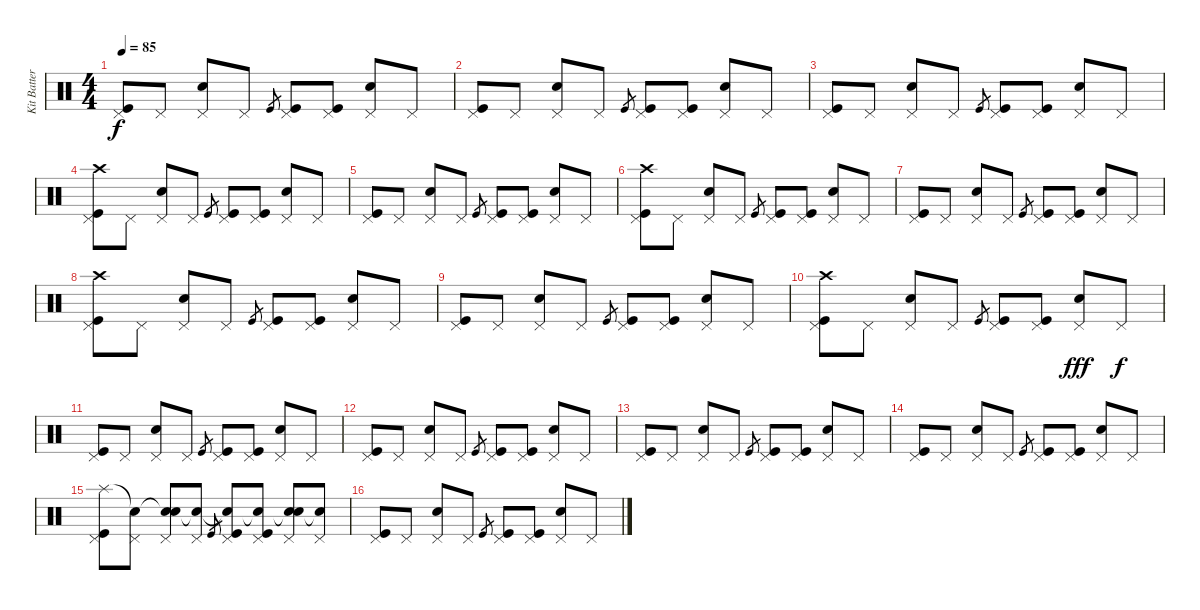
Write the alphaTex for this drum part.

\track ("Kit Batterie 1" "Kit Batter") {instrument percussion}
\staff {score}
\articulation defaults
\ts (4 4)
\tempo 85
\clef neutral
\ks c
("Pedal Hi-Hat (hit)" "Kick (hit)").8{dy f} "Pedal Hi-Hat (hit)".8 ("Pedal Hi-Hat (hit)" "Electric Snare (hit)").8 "Pedal Hi-Hat (hit)".8 "Kick (hit)".8{gr} ("Pedal Hi-Hat (hit)" "Kick (hit)").8 ("Pedal Hi-Hat (hit)" "Kick (hit)").8 ("Pedal Hi-Hat (hit)" "Electric Snare (hit)").8 "Pedal Hi-Hat (hit)".8 |
("Pedal Hi-Hat (hit)" "Kick (hit)").8 "Pedal Hi-Hat (hit)".8 ("Pedal Hi-Hat (hit)" "Electric Snare (hit)").8 "Pedal Hi-Hat (hit)".8 "Kick (hit)".8{gr} ("Pedal Hi-Hat (hit)" "Kick (hit)").8 ("Pedal Hi-Hat (hit)" "Kick (hit)").8 ("Pedal Hi-Hat (hit)" "Electric Snare (hit)").8 "Pedal Hi-Hat (hit)".8 |
("Pedal Hi-Hat (hit)" "Kick (hit)").8 "Pedal Hi-Hat (hit)".8 ("Pedal Hi-Hat (hit)" "Electric Snare (hit)").8 "Pedal Hi-Hat (hit)".8 "Kick (hit)".8{gr} ("Pedal Hi-Hat (hit)" "Kick (hit)").8 ("Pedal Hi-Hat (hit)" "Kick (hit)").8 ("Pedal Hi-Hat (hit)" "Electric Snare (hit)").8 "Pedal Hi-Hat (hit)".8 |
("Pedal Hi-Hat (hit)" "Crash high (hit)" "Kick (hit)").8 "Pedal Hi-Hat (hit)".8 ("Pedal Hi-Hat (hit)" "Electric Snare (hit)").8 "Pedal Hi-Hat (hit)".8 "Kick (hit)".8{gr} ("Pedal Hi-Hat (hit)" "Kick (hit)").8 ("Pedal Hi-Hat (hit)" "Kick (hit)").8 ("Pedal Hi-Hat (hit)" "Electric Snare (hit)").8 "Pedal Hi-Hat (hit)".8 |
("Pedal Hi-Hat (hit)" "Kick (hit)").8 "Pedal Hi-Hat (hit)".8 ("Pedal Hi-Hat (hit)" "Electric Snare (hit)").8 "Pedal Hi-Hat (hit)".8 "Kick (hit)".8{gr} ("Pedal Hi-Hat (hit)" "Kick (hit)").8 ("Pedal Hi-Hat (hit)" "Kick (hit)").8 ("Pedal Hi-Hat (hit)" "Electric Snare (hit)").8 "Pedal Hi-Hat (hit)".8 |
("Pedal Hi-Hat (hit)" "Crash high (hit)" "Kick (hit)").8 "Pedal Hi-Hat (hit)".8 ("Pedal Hi-Hat (hit)" "Electric Snare (hit)").8 "Pedal Hi-Hat (hit)".8 "Kick (hit)".8{gr} ("Pedal Hi-Hat (hit)" "Kick (hit)").8 ("Pedal Hi-Hat (hit)" "Kick (hit)").8 ("Pedal Hi-Hat (hit)" "Electric Snare (hit)").8 "Pedal Hi-Hat (hit)".8 |
("Pedal Hi-Hat (hit)" "Kick (hit)").8 "Pedal Hi-Hat (hit)".8 ("Pedal Hi-Hat (hit)" "Electric Snare (hit)").8 "Pedal Hi-Hat (hit)".8 "Kick (hit)".8{gr} ("Pedal Hi-Hat (hit)" "Kick (hit)").8 ("Pedal Hi-Hat (hit)" "Kick (hit)").8 ("Pedal Hi-Hat (hit)" "Electric Snare (hit)").8 "Pedal Hi-Hat (hit)".8 |
("Pedal Hi-Hat (hit)" "Crash high (hit)" "Kick (hit)").8 "Pedal Hi-Hat (hit)".8 ("Pedal Hi-Hat (hit)" "Electric Snare (hit)").8 "Pedal Hi-Hat (hit)".8 "Kick (hit)".8{gr} ("Pedal Hi-Hat (hit)" "Kick (hit)").8 ("Pedal Hi-Hat (hit)" "Kick (hit)").8 ("Pedal Hi-Hat (hit)" "Electric Snare (hit)").8 "Pedal Hi-Hat (hit)".8 |
("Pedal Hi-Hat (hit)" "Kick (hit)").8 "Pedal Hi-Hat (hit)".8 ("Pedal Hi-Hat (hit)" "Electric Snare (hit)").8 "Pedal Hi-Hat (hit)".8 "Kick (hit)".8{gr} ("Pedal Hi-Hat (hit)" "Kick (hit)").8 ("Pedal Hi-Hat (hit)" "Kick (hit)").8 ("Pedal Hi-Hat (hit)" "Electric Snare (hit)").8 "Pedal Hi-Hat (hit)".8 |
("Pedal Hi-Hat (hit)" "Crash high (hit)" "Kick (hit)").8 "Pedal Hi-Hat (hit)".8 ("Pedal Hi-Hat (hit)" "Electric Snare (hit)").8 "Pedal Hi-Hat (hit)".8 "Kick (hit)".8{gr} ("Pedal Hi-Hat (hit)" "Kick (hit)").8 ("Pedal Hi-Hat (hit)" "Kick (hit)").8 ("Pedal Hi-Hat (hit)" "Electric Snare (hit)").8{dy fff} "Pedal Hi-Hat (hit)".8{dy f} |
("Pedal Hi-Hat (hit)" "Kick (hit)").8 "Pedal Hi-Hat (hit)".8 ("Pedal Hi-Hat (hit)" "Electric Snare (hit)").8 "Pedal Hi-Hat (hit)".8 "Kick (hit)".8{gr} ("Pedal Hi-Hat (hit)" "Kick (hit)").8 ("Pedal Hi-Hat (hit)" "Kick (hit)").8 ("Pedal Hi-Hat (hit)" "Electric Snare (hit)").8 "Pedal Hi-Hat (hit)".8 |
("Pedal Hi-Hat (hit)" "Kick (hit)").8 "Pedal Hi-Hat (hit)".8 ("Pedal Hi-Hat (hit)" "Electric Snare (hit)").8 "Pedal Hi-Hat (hit)".8 "Kick (hit)".8{gr} ("Pedal Hi-Hat (hit)" "Kick (hit)").8 ("Pedal Hi-Hat (hit)" "Kick (hit)").8 ("Pedal Hi-Hat (hit)" "Electric Snare (hit)").8 "Pedal Hi-Hat (hit)".8 |
("Pedal Hi-Hat (hit)" "Kick (hit)").8 "Pedal Hi-Hat (hit)".8 ("Pedal Hi-Hat (hit)" "Electric Snare (hit)").8 "Pedal Hi-Hat (hit)".8 "Kick (hit)".8{gr} ("Pedal Hi-Hat (hit)" "Kick (hit)").8 ("Pedal Hi-Hat (hit)" "Kick (hit)").8 ("Pedal Hi-Hat (hit)" "Electric Snare (hit)").8 "Pedal Hi-Hat (hit)".8 |
("Pedal Hi-Hat (hit)" "Kick (hit)").8 "Pedal Hi-Hat (hit)".8 ("Pedal Hi-Hat (hit)" "Electric Snare (hit)").8 "Pedal Hi-Hat (hit)".8 "Kick (hit)".8{gr} ("Pedal Hi-Hat (hit)" "Kick (hit)").8 ("Pedal Hi-Hat (hit)" "Kick (hit)").8 ("Pedal Hi-Hat (hit)" "Electric Snare (hit)").8 "Pedal Hi-Hat (hit)".8 |
("Pedal Hi-Hat (hit)" "Splash (hit)" "Kick (hit)").8 ("Pedal Hi-Hat (hit)" "Snare (hit)"{t}).8 ("Pedal Hi-Hat (hit)" "Snare (hit)"{t} "Electric Snare (hit)").8 ("Pedal Hi-Hat (hit)" "Snare (hit)"{t}).8 "Kick (hit)".8{gr} ("Pedal Hi-Hat (hit)" "Snare (hit)"{t} "Kick (hit)").8 ("Pedal Hi-Hat (hit)" "Snare (hit)"{t} "Kick (hit)").8 ("Pedal Hi-Hat (hit)" "Snare (hit)"{t} "Electric Snare (hit)").8 ("Pedal Hi-Hat (hit)" "Snare (hit)"{t}).8 |
("Pedal Hi-Hat (hit)" "Kick (hit)").8 "Pedal Hi-Hat (hit)".8 ("Pedal Hi-Hat (hit)" "Electric Snare (hit)").8 "Pedal Hi-Hat (hit)".8 "Kick (hit)".8{gr} ("Pedal Hi-Hat (hit)" "Kick (hit)").8 ("Pedal Hi-Hat (hit)" "Kick (hit)").8 ("Pedal Hi-Hat (hit)" "Electric Snare (hit)").8 "Pedal Hi-Hat (hit)".8
